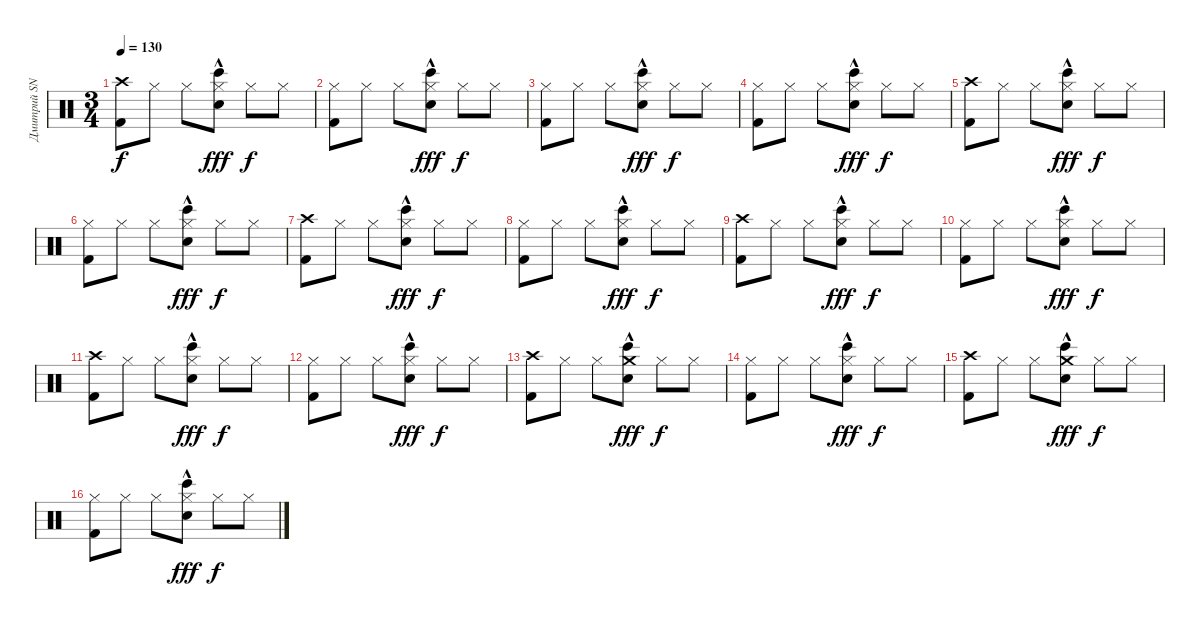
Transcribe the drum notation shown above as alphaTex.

\track ("Дмитрий SNAKE Хакимов" "Дмитрий SN") {instrument percussion}
\staff {score}
\articulation defaults
\ts (3 4)
\tempo 130
\clef neutral
\ks c
("Crash high (hit)" "Kick (hit) 2").8{dy f} "Hi-Hat (closed)".8 "Hi-Hat (closed)".8 ("Hi-Hat (closed)" "Snare (hit) 2"{hac} "Bongo High (hit)").8{dy fff} "Hi-Hat (closed)".8{dy f} "Hi-Hat (closed)".8 |
("Hi-Hat (closed)" "Kick (hit) 2").8 "Hi-Hat (closed)".8 "Hi-Hat (closed)".8 ("Hi-Hat (closed)" "Snare (hit) 2"{hac} "Bongo High (hit)").8{dy fff} "Hi-Hat (closed)".8{dy f} "Hi-Hat (closed)".8 |
("Hi-Hat (closed)" "Kick (hit) 2").8 "Hi-Hat (closed)".8 "Hi-Hat (closed)".8 ("Hi-Hat (closed)" "Snare (hit) 2"{hac} "Bongo High (hit)").8{dy fff} "Hi-Hat (closed)".8{dy f} "Hi-Hat (closed)".8 |
("Hi-Hat (closed)" "Kick (hit) 2").8 "Hi-Hat (closed)".8 "Hi-Hat (closed)".8 ("Hi-Hat (closed)" "Snare (hit) 2"{hac} "Bongo High (hit)").8{dy fff} "Hi-Hat (closed)".8{dy f} "Hi-Hat (closed)".8 |
("Crash high (hit)" "Kick (hit) 2").8 "Hi-Hat (closed)".8 "Hi-Hat (closed)".8 ("Hi-Hat (closed)" "Snare (hit) 2"{hac} "Bongo High (hit)").8{dy fff} "Hi-Hat (closed)".8{dy f} "Hi-Hat (closed)".8 |
("Hi-Hat (closed)" "Kick (hit) 2").8 "Hi-Hat (closed)".8 "Hi-Hat (closed)".8 ("Hi-Hat (closed)" "Snare (hit) 2"{hac} "Bongo High (hit)").8{dy fff} "Hi-Hat (closed)".8{dy f} "Hi-Hat (closed)".8 |
("Crash high (hit)" "Kick (hit) 2").8 "Hi-Hat (closed)".8 "Hi-Hat (closed)".8 ("Hi-Hat (closed)" "Snare (hit) 2"{hac} "Bongo High (hit)").8{dy fff} "Hi-Hat (closed)".8{dy f} "Hi-Hat (closed)".8 |
("Hi-Hat (closed)" "Kick (hit) 2").8 "Hi-Hat (closed)".8 "Hi-Hat (closed)".8 ("Hi-Hat (closed)" "Snare (hit) 2"{hac} "Bongo High (hit)").8{dy fff} "Hi-Hat (closed)".8{dy f} "Hi-Hat (closed)".8 |
("Crash high (hit)" "Kick (hit) 2").8 "Hi-Hat (closed)".8 "Hi-Hat (closed)".8 ("Hi-Hat (closed)" "Snare (hit) 2"{hac} "Bongo High (hit)").8{dy fff} "Hi-Hat (closed)".8{dy f} "Hi-Hat (closed)".8 |
("Hi-Hat (closed)" "Kick (hit) 2").8 "Hi-Hat (closed)".8 "Hi-Hat (closed)".8 ("Hi-Hat (closed)" "Snare (hit) 2"{hac} "Bongo High (hit)").8{dy fff} "Hi-Hat (closed)".8{dy f} "Hi-Hat (closed)".8 |
("Crash high (hit)" "Kick (hit) 2").8 "Hi-Hat (closed)".8 "Hi-Hat (closed)".8 ("Hi-Hat (closed)" "Snare (hit) 2"{hac} "Bongo High (hit)").8{dy fff} "Hi-Hat (closed)".8{dy f} "Hi-Hat (closed)".8 |
("Hi-Hat (closed)" "Kick (hit) 2").8 "Hi-Hat (closed)".8 "Hi-Hat (closed)".8 ("Hi-Hat (closed)" "Snare (hit) 2"{hac} "Bongo High (hit)").8{dy fff} "Hi-Hat (closed)".8{dy f} "Hi-Hat (closed)".8 |
("Crash high (hit)" "Kick (hit) 2").8 "Hi-Hat (closed)".8 "Hi-Hat (closed)".8 ("Crash medium (hit)" "Snare (hit) 2"{hac} "Bongo High (hit)").8{dy fff} "Hi-Hat (closed)".8{dy f} "Hi-Hat (closed)".8 |
("Hi-Hat (closed)" "Kick (hit) 2").8 "Hi-Hat (closed)".8 "Hi-Hat (closed)".8 ("Hi-Hat (closed)" "Snare (hit) 2"{hac} "Bongo High (hit)").8{dy fff} "Hi-Hat (closed)".8{dy f} "Hi-Hat (closed)".8 |
("Crash high (hit)" "Kick (hit) 2").8 "Hi-Hat (closed)".8 "Hi-Hat (closed)".8 ("Crash medium (hit)" "Snare (hit) 2"{hac} "Bongo High (hit)").8{dy fff} "Hi-Hat (closed)".8{dy f} "Hi-Hat (closed)".8 |
("Hi-Hat (closed)" "Kick (hit) 2").8 "Hi-Hat (closed)".8 "Hi-Hat (closed)".8 ("Hi-Hat (closed)" "Snare (hit) 2"{hac} "Bongo High (hit)").8{dy fff} "Hi-Hat (closed)".8{dy f} "Hi-Hat (closed)".8
